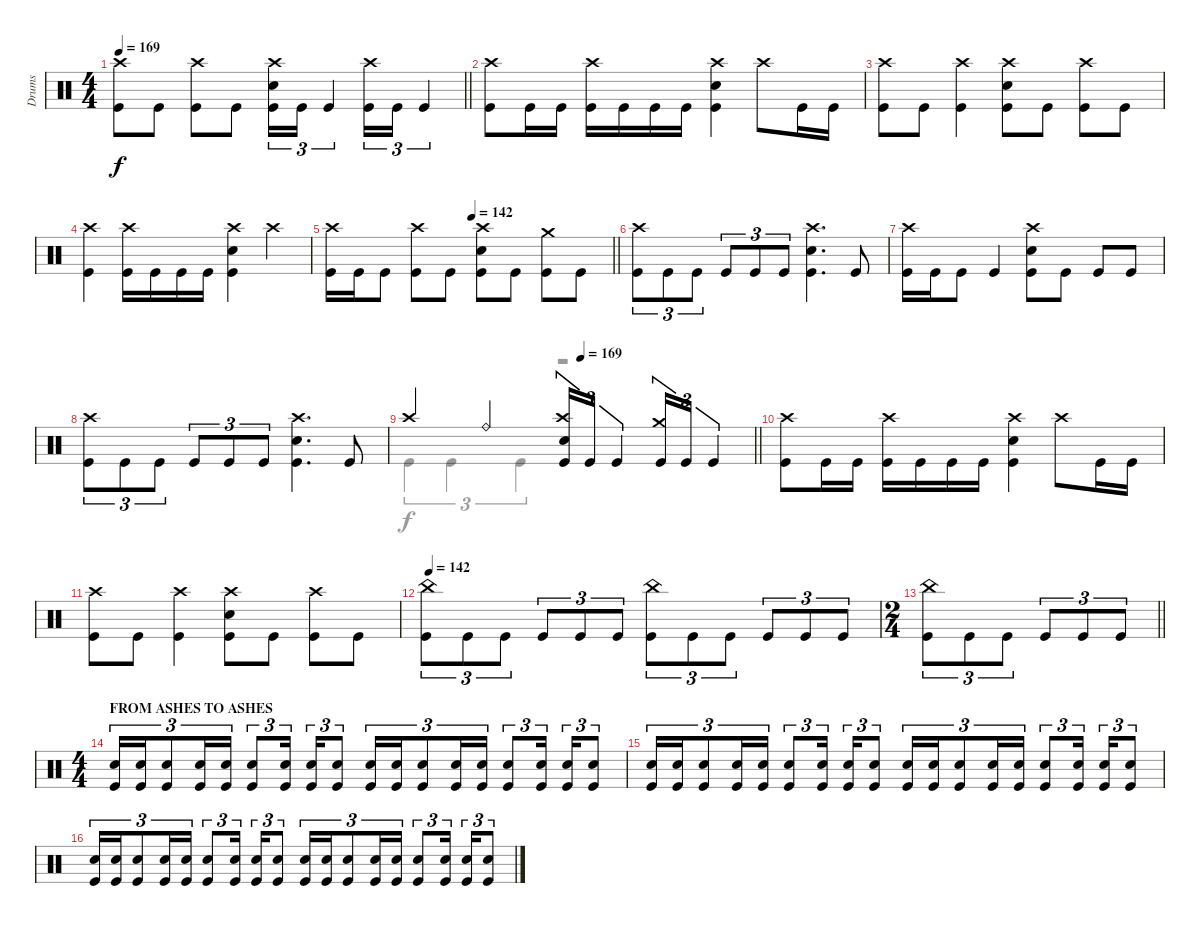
\track ("Drums" "Drums") {instrument percussion}
\staff
\articulation defaults
\voice
\ts (4 4)
\tempo 169
\clef neutral
\barLineRight lightlight
\ks c
("Crash high (hit)" "Kick (hit)").8{dy f} "Kick (hit)".8 ("Crash high (hit)" "Kick (hit)").8 "Kick (hit)".8 ("Crash high (hit)" "Electric Snare (hit)" "Kick (hit)").16{tu (3 2)} "Kick (hit)".16{tu (3 2)} "Kick (hit)".4{tu (3 2)} ("Crash high (hit)" "Kick (hit)").16{tu (3 2)} "Kick (hit)".16{tu (3 2)} "Kick (hit)".4{tu (3 2)} |
("Crash high (hit)" "Kick (hit)").8 "Kick (hit)".16 "Kick (hit)".16 ("Crash high (hit)" "Kick (hit)").16 "Kick (hit)".16 "Kick (hit)".16 "Kick (hit)".16 ("Crash high (hit)" "Electric Snare (hit)" "Kick (hit)").4 "Crash high (hit)".8 "Kick (hit)".16 "Kick (hit)".16 |
("Crash high (hit)" "Kick (hit)").8 "Kick (hit)".8 ("Crash high (hit)" "Kick (hit)").4 ("Crash high (hit)" "Electric Snare (hit)" "Kick (hit)").8 "Kick (hit)".8 ("Crash high (hit)" "Kick (hit)").8 "Kick (hit)".8 |
("Crash high (hit)" "Kick (hit)").4 ("Crash high (hit)" "Kick (hit)").16 "Kick (hit)".16 "Kick (hit)".16 "Kick (hit)".16 ("Crash high (hit)" "Electric Snare (hit)" "Kick (hit)").4 "Crash high (hit)".4 |
\tempo (142 0.5)
\barLineRight lightlight
("Crash high (hit)" "Kick (hit)").16 "Kick (hit)".16 "Kick (hit)".8 ("Crash high (hit)" "Kick (hit)").8 "Kick (hit)".8 ("Crash high (hit)" "Electric Snare (hit)" "Kick (hit)").8 "Kick (hit)".8 ("Crash medium (hit)" "Kick (hit)").8 "Kick (hit)".8 |
("Crash high (hit)" "Kick (hit)").8{tu (3 2)} "Kick (hit)".8{tu (3 2)} "Kick (hit)".8{tu (3 2)} "Kick (hit)".8{tu (3 2)} "Kick (hit)".8{tu (3 2)} "Kick (hit)".8{tu (3 2)} ("Crash high (hit)" "Electric Snare (hit)" "Kick (hit)").4{d} "Kick (hit)".8 |
("Crash high (hit)" "Kick (hit)").16 "Kick (hit)".16 "Kick (hit)".8 "Kick (hit)".4 ("Crash high (hit)" "Electric Snare (hit)" "Kick (hit)").8 "Kick (hit)".8 "Kick (hit)".8 "Kick (hit)".8 |
("Crash high (hit)" "Kick (hit)").8{tu (3 2)} "Kick (hit)".8{tu (3 2)} "Kick (hit)".8{tu (3 2)} "Kick (hit)".8{tu (3 2)} "Kick (hit)".8{tu (3 2)} "Kick (hit)".8{tu (3 2)} ("Crash high (hit)" "Electric Snare (hit)" "Kick (hit)").4{d} "Kick (hit)".8 |
\tempo (169 0.5)
\barLineRight lightlight "Crash high (hit)".4 "Ride (bell)".4
("Crash high (hit)" "Electric Snare (hit)" "Kick (hit)").16{tu (3 2)} "Kick (hit)".16{tu (3 2)} "Kick (hit)".4{tu (3 2)} ("Crash medium (hit)" "Kick (hit)").16{tu (3 2)} "Kick (hit)".16{tu (3 2)} "Kick (hit)".4{tu (3 2)} |
("Crash high (hit)" "Kick (hit)").8 "Kick (hit)".16 "Kick (hit)".16 ("Crash high (hit)" "Kick (hit)").16 "Kick (hit)".16 "Kick (hit)".16 "Kick (hit)".16 ("Crash high (hit)" "Electric Snare (hit)" "Kick (hit)").4 "Crash high (hit)".8 "Kick (hit)".16 "Kick (hit)".16 |
("Crash high (hit)" "Kick (hit)").8 "Kick (hit)".8 ("Crash high (hit)" "Kick (hit)").4 ("Crash high (hit)" "Electric Snare (hit)" "Kick (hit)").8 "Kick (hit)".8 ("Crash high (hit)" "Kick (hit)").8 "Kick (hit)".8 |
\tempo 142
("China (hit)" "Kick (hit)").8{tu (3 2)} "Kick (hit)".8{tu (3 2)} "Kick (hit)".8{tu (3 2)} "Kick (hit)".8{tu (3 2)} "Kick (hit)".8{tu (3 2)} "Kick (hit)".8{tu (3 2)} ("China (hit)" "Kick (hit)").8{tu (3 2)} "Kick (hit)".8{tu (3 2)} "Kick (hit)".8{tu (3 2)} "Kick (hit)".8{tu (3 2)} "Kick (hit)".8{tu (3 2)} "Kick (hit)".8{tu (3 2)} |
\ts (2 4)
\barLineRight lightlight
("China (hit)" "Kick (hit)").8{tu (3 2)} "Kick (hit)".8{tu (3 2)} "Kick (hit)".8{tu (3 2)} "Kick (hit)".8{tu (3 2)} "Kick (hit)".8{tu (3 2)} "Kick (hit)".8{tu (3 2)} |
\ts (4 4)
\section ("" "FROM ASHES TO ASHES")
("Electric Snare (hit)" "Kick (hit)").16{tu (3 2)} ("Electric Snare (hit)" "Kick (hit)").16{tu (3 2)} ("Electric Snare (hit)" "Kick (hit)").8{tu (3 2)} ("Electric Snare (hit)" "Kick (hit)").16{tu (3 2)} ("Electric Snare (hit)" "Kick (hit)").16{tu (3 2)} ("Electric Snare (hit)" "Kick (hit)").8{tu (3 2)} ("Electric Snare (hit)" "Kick (hit)").16{tu (3 2) beam splitsecondary} ("Electric Snare (hit)" "Kick (hit)").16{tu (3 2)} ("Electric Snare (hit)" "Kick (hit)").8{tu (3 2)} ("Electric Snare (hit)" "Kick (hit)").16{tu (3 2)} ("Electric Snare (hit)" "Kick (hit)").16{tu (3 2)} ("Electric Snare (hit)" "Kick (hit)").8{tu (3 2)} ("Electric Snare (hit)" "Kick (hit)").16{tu (3 2)} ("Electric Snare (hit)" "Kick (hit)").16{tu (3 2)} ("Electric Snare (hit)" "Kick (hit)").8{tu (3 2)} ("Electric Snare (hit)" "Kick (hit)").16{tu (3 2) beam splitsecondary} ("Electric Snare (hit)" "Kick (hit)").16{tu (3 2)} ("Electric Snare (hit)" "Kick (hit)").8{tu (3 2)} |
("Electric Snare (hit)" "Kick (hit)").16{tu (3 2)} ("Electric Snare (hit)" "Kick (hit)").16{tu (3 2)} ("Electric Snare (hit)" "Kick (hit)").8{tu (3 2)} ("Electric Snare (hit)" "Kick (hit)").16{tu (3 2)} ("Electric Snare (hit)" "Kick (hit)").16{tu (3 2)} ("Electric Snare (hit)" "Kick (hit)").8{tu (3 2)} ("Electric Snare (hit)" "Kick (hit)").16{tu (3 2) beam splitsecondary} ("Electric Snare (hit)" "Kick (hit)").16{tu (3 2)} ("Electric Snare (hit)" "Kick (hit)").8{tu (3 2)} ("Electric Snare (hit)" "Kick (hit)").16{tu (3 2)} ("Electric Snare (hit)" "Kick (hit)").16{tu (3 2)} ("Electric Snare (hit)" "Kick (hit)").8{tu (3 2)} ("Electric Snare (hit)" "Kick (hit)").16{tu (3 2)} ("Electric Snare (hit)" "Kick (hit)").16{tu (3 2)} ("Electric Snare (hit)" "Kick (hit)").8{tu (3 2)} ("Electric Snare (hit)" "Kick (hit)").16{tu (3 2) beam splitsecondary} ("Electric Snare (hit)" "Kick (hit)").16{tu (3 2)} ("Electric Snare (hit)" "Kick (hit)").8{tu (3 2)} |
("Electric Snare (hit)" "Kick (hit)").16{tu (3 2)} ("Electric Snare (hit)" "Kick (hit)").16{tu (3 2)} ("Electric Snare (hit)" "Kick (hit)").8{tu (3 2)} ("Electric Snare (hit)" "Kick (hit)").16{tu (3 2)} ("Electric Snare (hit)" "Kick (hit)").16{tu (3 2)} ("Electric Snare (hit)" "Kick (hit)").8{tu (3 2)} ("Electric Snare (hit)" "Kick (hit)").16{tu (3 2) beam splitsecondary} ("Electric Snare (hit)" "Kick (hit)").16{tu (3 2)} ("Electric Snare (hit)" "Kick (hit)").8{tu (3 2)} ("Electric Snare (hit)" "Kick (hit)").16{tu (3 2)} ("Electric Snare (hit)" "Kick (hit)").16{tu (3 2)} ("Electric Snare (hit)" "Kick (hit)").8{tu (3 2)} ("Electric Snare (hit)" "Kick (hit)").16{tu (3 2)} ("Electric Snare (hit)" "Kick (hit)").16{tu (3 2)} ("Electric Snare (hit)" "Kick (hit)").8{tu (3 2)} ("Electric Snare (hit)" "Kick (hit)").16{tu (3 2) beam splitsecondary} ("Electric Snare (hit)" "Kick (hit)").16{tu (3 2)} ("Electric Snare (hit)" "Kick (hit)").8{tu (3 2)}
\voice
\clef neutral
\ottava regular
\simile none
\barLineRight lightlight
\ks c
|
|
|
|
\barLineRight lightlight
|
|
|
|
\barLineRight lightlight "Kick (hit)".4{tu (3 2)} "Kick (hit)".4{tu (3 2)} "Kick (hit)".4{tu (3 2)}
r.2 |
|
|
|
\barLineRight lightlight
|
|
|
